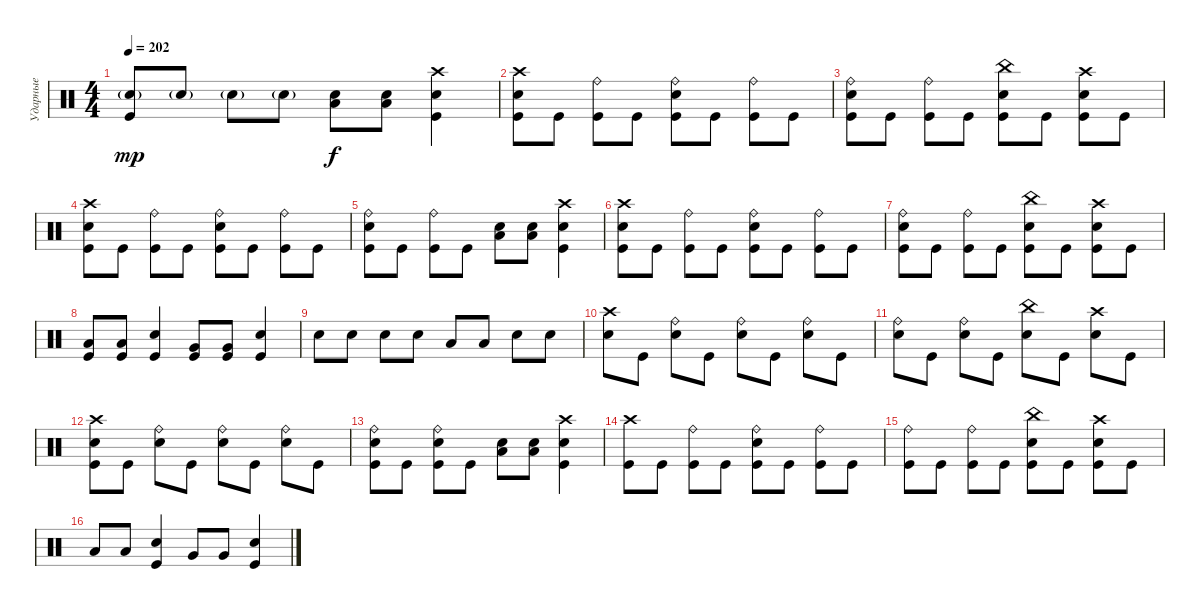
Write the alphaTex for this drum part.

\track ("Ударные" "Ударные") {instrument percussion}
\staff {score}
\articulation defaults
\ts (4 4)
\tempo 202
\clef neutral
\ks c
("Electric Snare (hit)"{g} "Kick (hit)").8{dy mp} "Electric Snare (hit)"{g}.8 "Electric Snare (hit)"{g}.8 "Electric Snare (hit)"{g}.8 ("Low Tom (hit)" "Electric Snare (hit)").8{dy f} ("Low Tom (hit)" "Electric Snare (hit)").8 ("Crash high (hit)" "Electric Snare (hit)" "Kick (hit)").4 |
("Crash high (hit)" "Electric Snare (hit)" "Kick (hit)").8 "Kick (hit)".8 ("Ride (bell)" "Kick (hit)").8 "Kick (hit)".8 ("Ride (bell)" "Electric Snare (hit)" "Kick (hit)").8 "Kick (hit)".8 ("Ride (bell)" "Kick (hit)").8 "Kick (hit)".8 |
("Ride (bell)" "Electric Snare (hit)" "Kick (hit)").8 "Kick (hit)".8 ("Ride (bell)" "Kick (hit)").8 "Kick (hit)".8 ("China (hit)" "Electric Snare (hit)" "Kick (hit)").8 "Kick (hit)".8 ("Crash high (hit)" "Electric Snare (hit)" "Kick (hit)").8 "Kick (hit)".8 |
("Crash high (hit)" "Electric Snare (hit)" "Kick (hit)").8 "Kick (hit)".8 ("Ride (bell)" "Kick (hit)").8 "Kick (hit)".8 ("Ride (bell)" "Electric Snare (hit)" "Kick (hit)").8 "Kick (hit)".8 ("Ride (bell)" "Kick (hit)").8 "Kick (hit)".8 |
("Ride (bell)" "Electric Snare (hit)" "Kick (hit)").8 "Kick (hit)".8 ("Ride (bell)" "Kick (hit)").8 "Kick (hit)".8 ("Low Tom (hit)" "Electric Snare (hit)").8 ("Low Tom (hit)" "Electric Snare (hit)").8 ("Crash high (hit)" "Electric Snare (hit)" "Kick (hit)").4 |
("Crash high (hit)" "Electric Snare (hit)" "Kick (hit)").8 "Kick (hit)".8 ("Ride (bell)" "Kick (hit)").8 "Kick (hit)".8 ("Ride (bell)" "Electric Snare (hit)" "Kick (hit)").8 "Kick (hit)".8 ("Ride (bell)" "Kick (hit)").8 "Kick (hit)".8 |
("Ride (bell)" "Electric Snare (hit)" "Kick (hit)").8 "Kick (hit)".8 ("Ride (bell)" "Kick (hit)").8 "Kick (hit)".8 ("China (hit)" "Electric Snare (hit)" "Kick (hit)").8 "Kick (hit)".8 ("Crash high (hit)" "Electric Snare (hit)" "Kick (hit)").8 "Kick (hit)".8 |
("Low Tom (hit)" "Kick (hit)").8 ("Low Tom (hit)" "Kick (hit)").8 ("Electric Snare (hit)" "Kick (hit)").4 ("Very Low Tom (hit)" "Kick (hit)").8 ("Very Low Tom (hit)" "Kick (hit)").8 ("Electric Snare (hit)" "Kick (hit)").4 |
"Electric Snare (hit)".8 "Electric Snare (hit)".8 "Electric Snare (hit)".8 "Electric Snare (hit)".8 "Low Tom (hit)".8 "Low Tom (hit)".8 "Electric Snare (hit)".8 "Electric Snare (hit)".8 |
("Crash high (hit)" "Electric Snare (hit)").8 "Kick (hit)".8 ("Ride (bell)" "Electric Snare (hit)").8 "Kick (hit)".8 ("Ride (bell)" "Electric Snare (hit)").8 "Kick (hit)".8 ("Ride (bell)" "Electric Snare (hit)").8 "Kick (hit)".8 |
("Ride (bell)" "Electric Snare (hit)").8 "Kick (hit)".8 ("Ride (bell)" "Electric Snare (hit)").8 "Kick (hit)".8 ("China (hit)" "Electric Snare (hit)").8 "Kick (hit)".8 ("Crash high (hit)" "Electric Snare (hit)").8 "Kick (hit)".8 |
("Crash high (hit)" "Electric Snare (hit)" "Kick (hit)").8 "Kick (hit)".8 ("Ride (bell)" "Electric Snare (hit)").8 "Kick (hit)".8 ("Ride (bell)" "Electric Snare (hit)").8 "Kick (hit)".8 ("Ride (bell)" "Electric Snare (hit)").8 "Kick (hit)".8 |
("Ride (bell)" "Electric Snare (hit)" "Kick (hit)").8 "Kick (hit)".8 ("Ride (bell)" "Electric Snare (hit)" "Kick (hit)").8 "Kick (hit)".8 ("Low Tom (hit)" "Electric Snare (hit)").8 ("Low Tom (hit)" "Electric Snare (hit)").8 ("Crash high (hit)" "Electric Snare (hit)" "Kick (hit)").4 |
("Crash high (hit)" "Kick (hit)").8 "Kick (hit)".8 ("Ride (bell)" "Kick (hit)").8 "Kick (hit)".8 ("Ride (bell)" "Electric Snare (hit)" "Kick (hit)").8 "Kick (hit)".8 ("Ride (bell)" "Kick (hit)").8 "Kick (hit)".8 |
("Ride (bell)" "Kick (hit)").8 "Kick (hit)".8 ("Ride (bell)" "Kick (hit)").8 "Kick (hit)".8 ("China (hit)" "Electric Snare (hit)" "Kick (hit)").8 "Kick (hit)".8 ("Crash high (hit)" "Electric Snare (hit)" "Kick (hit)").8 "Kick (hit)".8 |
"Low Tom (hit)".8 "Low Tom (hit)".8 ("Electric Snare (hit)" "Kick (hit)").4 "Very Low Tom (hit)".8 "Very Low Tom (hit)".8 ("Electric Snare (hit)" "Kick (hit)").4
